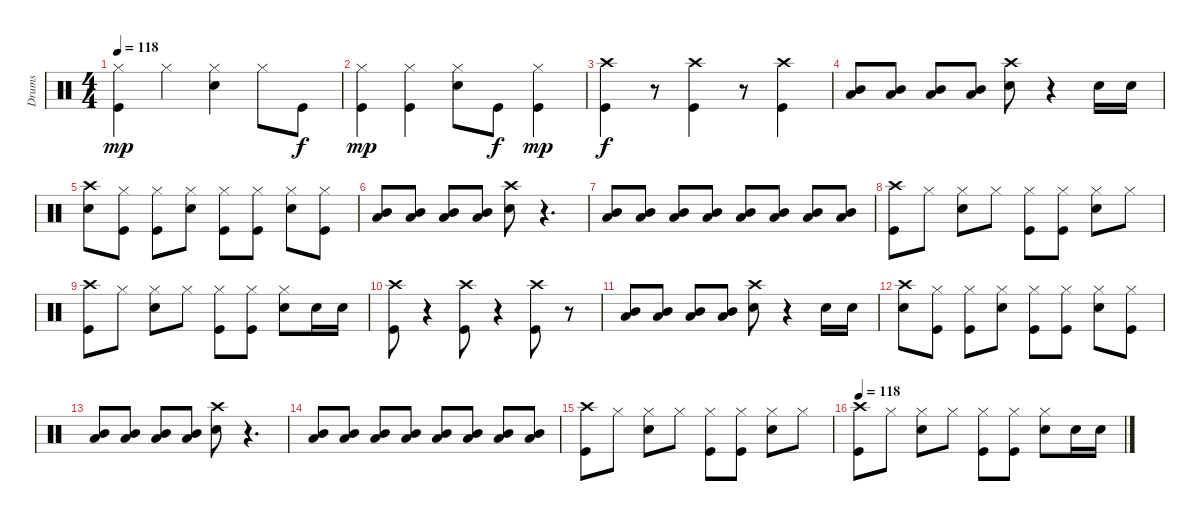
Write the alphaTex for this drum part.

\track ("Drums" "Drums") {instrument percussion}
\staff {score}
\articulation defaults
\ts (4 4)
\tempo 118
\clef neutral
\ks c
("Kick (hit)" "Hi-Hat (closed)").4{dy mp} "Hi-Hat (closed)".4 ("Snare (hit) 2" "Hi-Hat (closed)").4 "Hi-Hat (closed)".8 "Kick (hit)".8{dy f} |
("Kick (hit)" "Hi-Hat (closed)").4{dy mp} ("Kick (hit)" "Hi-Hat (closed)").4 ("Snare (hit) 2" "Hi-Hat (closed)").8 "Kick (hit)".8{dy f} ("Kick (hit)" "Hi-Hat (closed)").4{dy mp} |
("Kick (hit)" "Crash high (hit)").4{dy f} r.8 ("Kick (hit)" "Crash high (hit)").4 r.8 ("Kick (hit)" "Crash high (hit)").4 |
("Low Tom (hit)" "Mid Tom (hit)").8 ("Low Tom (hit)" "Mid Tom (hit)").8 ("Low Tom (hit)" "Mid Tom (hit)").8 ("Low Tom (hit)" "Mid Tom (hit)").8 ("Snare (hit) 2" "Crash high (hit)").8 r.4 "Snare (hit) 2".16 "Snare (hit) 2".16 |
("Snare (hit) 2" "Crash high (hit)").8 ("Kick (hit)" "Hi-Hat (closed)").8 ("Kick (hit)" "Hi-Hat (closed)").8 ("Snare (hit) 2" "Hi-Hat (closed)").8 ("Kick (hit)" "Hi-Hat (closed)").8 ("Kick (hit)" "Hi-Hat (closed)").8 ("Snare (hit) 2" "Hi-Hat (closed)").8 ("Kick (hit)" "Hi-Hat (closed)").8 |
("Low Tom (hit)" "Mid Tom (hit)").8 ("Low Tom (hit)" "Mid Tom (hit)").8 ("Low Tom (hit)" "Mid Tom (hit)").8 ("Low Tom (hit)" "Mid Tom (hit)").8 ("Snare (hit) 2" "Crash high (hit)").8 r.4{d} |
("Low Tom (hit)" "Mid Tom (hit)").8 ("Low Tom (hit)" "Mid Tom (hit)").8 ("Low Tom (hit)" "Mid Tom (hit)").8 ("Low Tom (hit)" "Mid Tom (hit)").8 ("Low Tom (hit)" "Mid Tom (hit)").8 ("Low Tom (hit)" "Mid Tom (hit)").8 ("Low Tom (hit)" "Mid Tom (hit)").8 ("Low Tom (hit)" "Mid Tom (hit)").8 |
("Kick (hit)" "Crash high (hit)").8 "Hi-Hat (closed)".8 ("Snare (hit) 2" "Hi-Hat (closed)").8 "Hi-Hat (closed)".8 ("Kick (hit)" "Hi-Hat (closed)").8 ("Kick (hit)" "Hi-Hat (closed)").8 ("Snare (hit) 2" "Hi-Hat (closed)").8 "Hi-Hat (closed)".8 |
("Kick (hit)" "Crash high (hit)").8 "Hi-Hat (closed)".8 ("Snare (hit) 2" "Hi-Hat (closed)").8 "Hi-Hat (closed)".8 ("Kick (hit)" "Hi-Hat (closed)").8 ("Kick (hit)" "Hi-Hat (closed)").8 ("Snare (hit) 2" "Hi-Hat (closed)").8 "Snare (hit) 2".16 "Snare (hit) 2".16 |
("Kick (hit)" "Crash high (hit)").8 r.4 ("Kick (hit)" "Crash high (hit)").8 r.4 ("Kick (hit)" "Crash high (hit)").8 r.8 |
("Low Tom (hit)" "Mid Tom (hit)").8 ("Low Tom (hit)" "Mid Tom (hit)").8 ("Low Tom (hit)" "Mid Tom (hit)").8 ("Low Tom (hit)" "Mid Tom (hit)").8 ("Snare (hit) 2" "Crash high (hit)").8 r.4 "Snare (hit) 2".16 "Snare (hit) 2".16 |
("Snare (hit) 2" "Crash high (hit)").8 ("Kick (hit)" "Hi-Hat (closed)").8 ("Kick (hit)" "Hi-Hat (closed)").8 ("Snare (hit) 2" "Hi-Hat (closed)").8 ("Kick (hit)" "Hi-Hat (closed)").8 ("Kick (hit)" "Hi-Hat (closed)").8 ("Snare (hit) 2" "Hi-Hat (closed)").8 ("Kick (hit)" "Hi-Hat (closed)").8 |
("Low Tom (hit)" "Mid Tom (hit)").8 ("Low Tom (hit)" "Mid Tom (hit)").8 ("Low Tom (hit)" "Mid Tom (hit)").8 ("Low Tom (hit)" "Mid Tom (hit)").8 ("Snare (hit) 2" "Crash high (hit)").8 r.4{d} |
("Low Tom (hit)" "Mid Tom (hit)").8 ("Low Tom (hit)" "Mid Tom (hit)").8 ("Low Tom (hit)" "Mid Tom (hit)").8 ("Low Tom (hit)" "Mid Tom (hit)").8 ("Low Tom (hit)" "Mid Tom (hit)").8 ("Low Tom (hit)" "Mid Tom (hit)").8 ("Low Tom (hit)" "Mid Tom (hit)").8 ("Low Tom (hit)" "Mid Tom (hit)").8 |
("Kick (hit)" "Crash high (hit)").8 "Hi-Hat (closed)".8 ("Snare (hit) 2" "Hi-Hat (closed)").8 "Hi-Hat (closed)".8 ("Kick (hit)" "Hi-Hat (closed)").8 ("Kick (hit)" "Hi-Hat (closed)").8 ("Snare (hit) 2" "Hi-Hat (closed)").8 "Hi-Hat (closed)".8 |
\tempo 118
("Kick (hit)" "Crash high (hit)").8 "Hi-Hat (closed)".8 ("Snare (hit) 2" "Hi-Hat (closed)").8 "Hi-Hat (closed)".8 ("Kick (hit)" "Hi-Hat (closed)").8 ("Kick (hit)" "Hi-Hat (closed)").8 ("Snare (hit) 2" "Hi-Hat (closed)").8 "Snare (hit) 2".16 "Snare (hit) 2".16
